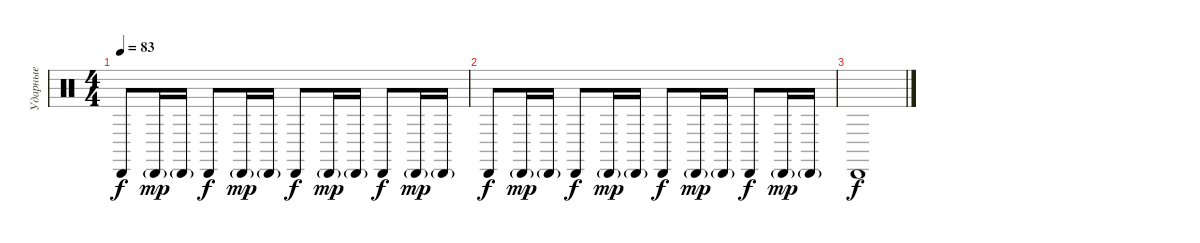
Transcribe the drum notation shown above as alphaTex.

\track ("Ударные" "Ударные") {instrument percussion}
\staff {score}
\articulation defaults
\ts (4 4)
\tempo 83
\clef neutral
\ks c "Cabasa (hit)".8{dy f} "Cabasa (hit)"{g}.16{dy mp} "Cabasa (hit)"{g}.16 "Cabasa (hit)".8{dy f} "Cabasa (hit)"{g}.16{dy mp} "Cabasa (hit)"{g}.16 "Cabasa (hit)".8{dy f} "Cabasa (hit)"{g}.16{dy mp} "Cabasa (hit)"{g}.16 "Cabasa (hit)".8{dy f} "Cabasa (hit)"{g}.16{dy mp} "Cabasa (hit)"{g}.16
|
"Cabasa (hit)".8{dy f} "Cabasa (hit)"{g}.16{dy mp} "Cabasa (hit)"{g}.16 "Cabasa (hit)".8{dy f} "Cabasa (hit)"{g}.16{dy mp} "Cabasa (hit)"{g}.16 "Cabasa (hit)".8{dy f} "Cabasa (hit)"{g}.16{dy mp} "Cabasa (hit)"{g}.16 "Cabasa (hit)".8{dy f} "Cabasa (hit)"{g}.16{dy mp} "Cabasa (hit)"{g}.16 |
"Cabasa (hit)".1{dy f}
